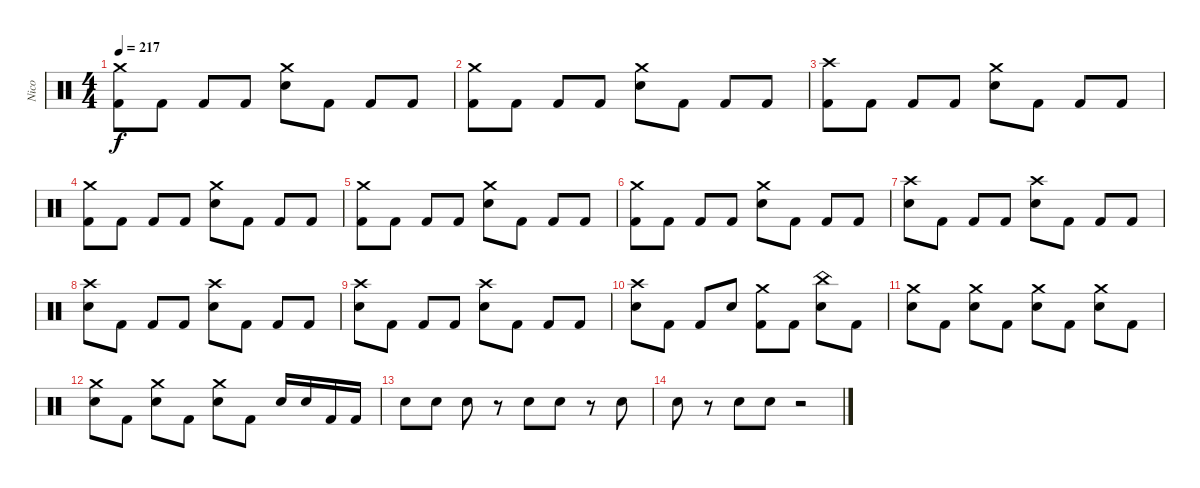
\track ("Nico" "Nico") {instrument percussion}
\staff {score}
\articulation defaults
\ts (4 4)
\tempo 217
\clef neutral
\ks c
("Crash medium (hit)" "Kick (hit) 2").8{dy f} "Kick (hit) 2".8 "Kick (hit) 2".8 "Kick (hit) 2".8 ("Crash medium (hit)" "Electric Snare (hit)").8 "Kick (hit) 2".8 "Kick (hit) 2".8 "Kick (hit) 2".8 |
("Crash medium (hit)" "Kick (hit) 2").8 "Kick (hit) 2".8 "Kick (hit) 2".8 "Kick (hit) 2".8 ("Crash medium (hit)" "Electric Snare (hit)").8 "Kick (hit) 2".8 "Kick (hit) 2".8 "Kick (hit) 2".8 |
("Crash high (hit)" "Kick (hit) 2").8 "Kick (hit) 2".8 "Kick (hit) 2".8 "Kick (hit) 2".8 ("Crash medium (hit)" "Electric Snare (hit)").8 "Kick (hit) 2".8 "Kick (hit) 2".8 "Kick (hit) 2".8 |
("Crash medium (hit)" "Kick (hit) 2").8 "Kick (hit) 2".8 "Kick (hit) 2".8 "Kick (hit) 2".8 ("Crash medium (hit)" "Electric Snare (hit)").8 "Kick (hit) 2".8 "Kick (hit) 2".8 "Kick (hit) 2".8 |
("Crash medium (hit)" "Kick (hit) 2").8 "Kick (hit) 2".8 "Kick (hit) 2".8 "Kick (hit) 2".8 ("Crash medium (hit)" "Electric Snare (hit)").8 "Kick (hit) 2".8 "Kick (hit) 2".8 "Kick (hit) 2".8 |
("Crash medium (hit)" "Kick (hit) 2").8 "Kick (hit) 2".8 "Kick (hit) 2".8 "Kick (hit) 2".8 ("Crash medium (hit)" "Electric Snare (hit)").8 "Kick (hit) 2".8 "Kick (hit) 2".8 "Kick (hit) 2".8 |
("Crash high (hit)" "Electric Snare (hit)").8 "Kick (hit) 2".8 "Kick (hit) 2".8 "Kick (hit) 2".8 ("Crash high (hit)" "Electric Snare (hit)").8 "Kick (hit) 2".8 "Kick (hit) 2".8 "Kick (hit) 2".8 |
("Crash high (hit)" "Electric Snare (hit)").8 "Kick (hit) 2".8 "Kick (hit) 2".8 "Kick (hit) 2".8 ("Crash high (hit)" "Electric Snare (hit)").8 "Kick (hit) 2".8 "Kick (hit) 2".8 "Kick (hit) 2".8 |
("Crash high (hit)" "Electric Snare (hit)").8 "Kick (hit) 2".8 "Kick (hit) 2".8 "Kick (hit) 2".8 ("Crash high (hit)" "Electric Snare (hit)").8 "Kick (hit) 2".8 "Kick (hit) 2".8 "Kick (hit) 2".8 |
("Crash high (hit)" "Electric Snare (hit)").8 "Kick (hit) 2".8 "Kick (hit) 2".8 "Electric Snare (hit)".8 ("Crash medium (hit)" "Kick (hit) 2").8 "Kick (hit) 2".8 ("China (hit)" "Electric Snare (hit)").8 "Kick (hit) 2".8 |
("Crash medium (hit)" "Electric Snare (hit)").8 "Kick (hit) 2".8 ("Crash medium (hit)" "Electric Snare (hit)").8 "Kick (hit) 2".8 ("Crash medium (hit)" "Electric Snare (hit)").8 "Kick (hit) 2".8 ("Crash medium (hit)" "Electric Snare (hit)").8 "Kick (hit) 2".8 |
("Crash medium (hit)" "Electric Snare (hit)").8 "Kick (hit) 2".8 ("Crash medium (hit)" "Electric Snare (hit)").8 "Kick (hit) 2".8 ("Crash medium (hit)" "Electric Snare (hit)").8 "Kick (hit) 2".8 "Electric Snare (hit)".16 "Electric Snare (hit)".16 "Kick (hit) 2".16 "Kick (hit) 2".16 |
"Electric Snare (hit)".8 "Electric Snare (hit)".8 "Electric Snare (hit)".8 r.8 "Electric Snare (hit)".8 "Electric Snare (hit)".8 r.8 "Electric Snare (hit)".8 |
"Electric Snare (hit)".8 r.8 "Electric Snare (hit)".8 "Electric Snare (hit)".8 r.2
